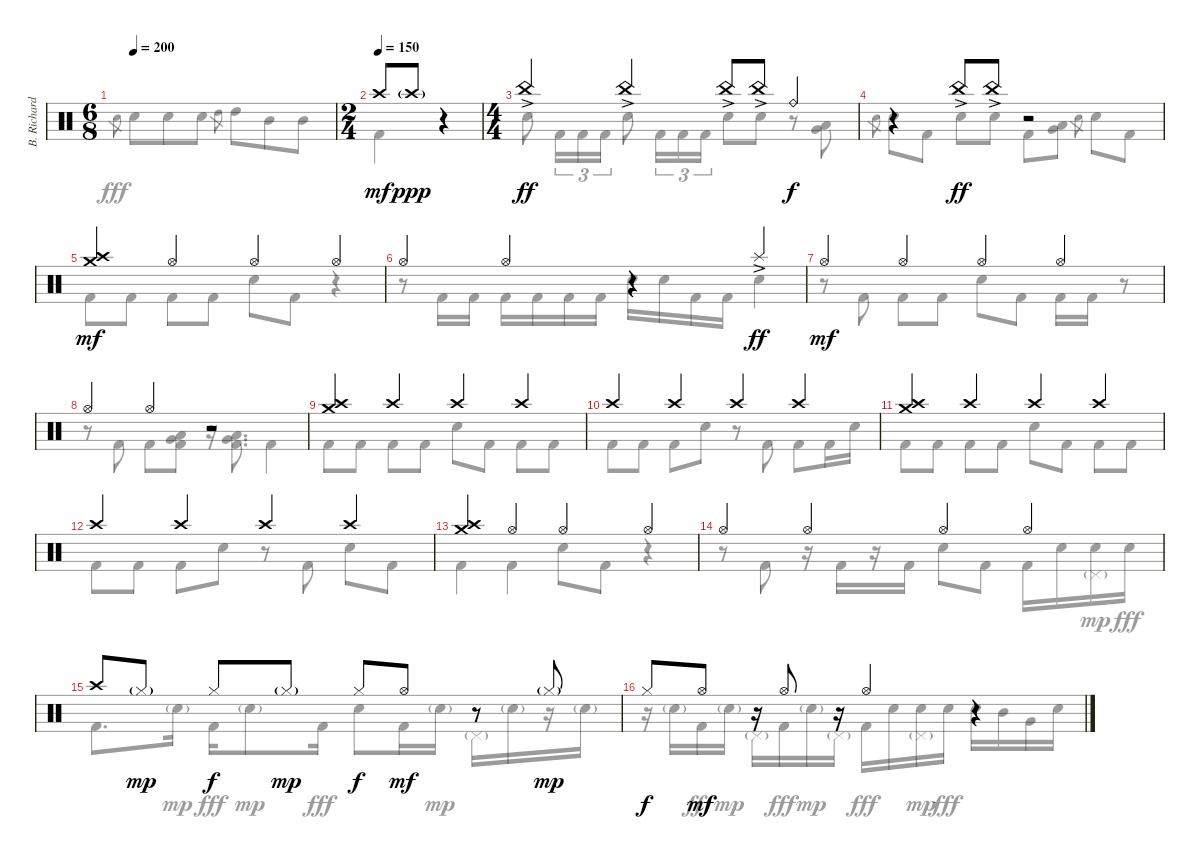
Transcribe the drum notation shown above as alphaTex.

\track ("B. Richardson Drums" "B. Richard") {instrument percussion}
\staff {score}
\articulation defaults
\voice
\ts (6 8)
\tempo 200
\clef neutral
\ks c
|
\ts (2 4)
\tempo (150)
"Crash high (hit)".8{dy mf} "Crash high (hit)"{g}.8{dy ppp} r.4 |
\ts (4 4)
"China (hit)"{ac}.4{dy ff} "China (hit)"{ac}.4 "China (hit)"{ac}.8 "China (hit)"{ac}.8 "Ride (bell)".4{dy f} |
r.4 "China (hit)"{ac}.8{dy ff} "China (hit)"{ac}.8 r.2 |
("Crash high (hit)" "Crash medium (hit)").4{dy mf} "Hi-Hat (open)".4 "Hi-Hat (open)".4 "Hi-Hat (open)".4 |
"Hi-Hat (open)".4 "Hi-Hat (open)".4 r.4 "Splash (hit)"{ac}.4{dy ff} |
"Hi-Hat (open)".4{dy mf} "Hi-Hat (open)".4 "Hi-Hat (open)".4 "Hi-Hat (open)".4 |
"Hi-Hat (open)".4 "Hi-Hat (open)".4 r.2 |
("Crash high (hit)" "Crash medium (hit)").4 "Crash high (hit)".4 "Crash high (hit)".4 "Crash high (hit)".4 |
"Crash high (hit)".4 "Crash high (hit)".4 "Crash high (hit)".4 "Crash high (hit)".4 |
("Crash high (hit)" "Crash medium (hit)").4 "Crash high (hit)".4 "Crash high (hit)".4 "Crash high (hit)".4 |
"Crash high (hit)".4 "Crash high (hit)".4 "Crash high (hit)".4 "Crash high (hit)".4 |
("Crash high (hit)" "Crash medium (hit)").4 "Hi-Hat (open)".4 "Hi-Hat (open)".4 "Hi-Hat (open)".4 |
"Hi-Hat (open)".4 "Hi-Hat (open)".4 "Hi-Hat (open)".4 "Hi-Hat (open)".4 |
"Crash high (hit)".8 "Hi-Hat (closed)"{g}.8{dy mp} "Hi-Hat (closed)".8{dy f} "Hi-Hat (closed)"{g}.8{dy mp} "Hi-Hat (closed)".8{dy f} "Hi-Hat (open)".8{dy mf} r.8 "Hi-Hat (closed)"{g}.8{dy mp} |
"Hi-Hat (closed)".8{dy f} "Hi-Hat (open)".8{dy mf} r.16 "Hi-Hat (open)".8 r.16 "Hi-Hat (open)".4 r.4
\voice
\clef neutral
\ottava regular
\simile none
\ks c "Electric Snare (hit)".8{gr dy fff} "Electric Snare (hit)".8 "Electric Snare (hit)".8 "Electric Snare (hit)".8 "High Tom (hit)".8{gr} "High Tom (hit)".8 "Mid Tom (hit)".8 "Mid Tom (hit)".8
|
"Kick (hit) 2".4 r.4 |
"Electric Snare (hit)".8 "Kick (hit) 2".16{tu (3 2)} "Kick (hit) 2".16{tu (3 2)} "Kick (hit) 2".16{tu (3 2)} "Electric Snare (hit)".8 "Kick (hit) 2".16{tu (3 2)} "Kick (hit) 2".16{tu (3 2)} "Kick (hit) 2".16{tu (3 2)} "Electric Snare (hit)".8 "Electric Snare (hit)".8 r.8 ("Low Tom (hit)" "Very Low Tom (hit)").8 |
"Electric Snare (hit)".8{gr} "Electric Snare (hit)".8 "Kick (hit) 2".8 "Electric Snare (hit)".8 "Electric Snare (hit)".8 "Kick (hit) 2".8 ("Low Tom (hit)" "Very Low Tom (hit)").8 "Electric Snare (hit)".8{gr} "Electric Snare (hit)".8 "Kick (hit) 2".8 |
"Kick (hit) 2".8 "Kick (hit) 2".8 "Kick (hit) 2".8 "Kick (hit) 2".8 "Electric Snare (hit)".8 "Kick (hit) 2".8 r.4 |
r.8 "Kick (hit) 2".16 "Kick (hit) 2".16 "Kick (hit) 2".16 "Kick (hit) 2".16 "Kick (hit) 2".16 "Kick (hit) 2".16 "Electric Snare (hit)".16 "Electric Snare (hit)".16 "Kick (hit) 2".16 "Kick (hit) 2".16 "Electric Snare (hit)".4 |
r.8 "Kick (hit) 2".8 "Kick (hit) 2".8 "Kick (hit) 2".8 "Electric Snare (hit)".8 "Kick (hit) 2".8 "Kick (hit) 2".16 "Kick (hit) 2".16 r.8 |
r.8 "Kick (hit) 2".8 "Kick (hit) 2".8 ("Low Tom (hit)" "Very Low Tom (hit)" "Kick (hit) 2").8 r.16 ("Low Tom (hit)" "Very Low Tom (hit)" "Kick (hit) 2").8{d} "Kick (hit) 2".4 |
"Kick (hit) 2".8 "Kick (hit) 2".8 "Kick (hit) 2".8 "Kick (hit) 2".8 "Electric Snare (hit)".8 "Kick (hit) 2".8 "Kick (hit) 2".8 "Kick (hit) 2".8 |
"Kick (hit) 2".8 "Kick (hit) 2".8 "Kick (hit) 2".8 "Electric Snare (hit)".8 r.8 "Kick (hit) 2".8 "Kick (hit) 2".8 "Kick (hit) 2".16 "Electric Snare (hit)".16 |
"Kick (hit) 2".8 "Kick (hit) 2".8 "Kick (hit) 2".8 "Kick (hit) 2".8 "Electric Snare (hit)".8 "Kick (hit) 2".8 "Kick (hit) 2".8 "Kick (hit) 2".8 |
"Kick (hit) 2".8 "Kick (hit) 2".8 "Kick (hit) 2".8 "Electric Snare (hit)".8 r.8 "Kick (hit) 2".8 "Electric Snare (hit)".8 "Kick (hit) 2".8 |
"Kick (hit) 2".4 "Kick (hit) 2".4 "Electric Snare (hit)".8 "Kick (hit) 2".8 r.4 |
r.8 "Kick (hit) 2".8 r.16 "Kick (hit) 2".16 r.16 "Kick (hit) 2".16 "Electric Snare (hit)".8 "Kick (hit) 2".8 "Kick (hit) 2".16 "Electric Snare (hit)".16 ("Electric Snare (hit)" "Pedal Hi-Hat (hit)"{g}).16{dy mp} "Electric Snare (hit)".16{dy fff} |
"Kick (hit) 2".8{d} "Electric Snare (hit)"{g}.16{dy mp} "Kick (hit) 2".16{dy fff} "Electric Snare (hit)"{g}.8{dy mp} "Kick (hit) 2".16{dy fff} "Electric Snare (hit)".8 "Kick (hit) 2".16 "Electric Snare (hit)"{g}.16{dy mp} "Pedal Hi-Hat (hit)"{g}.16 "Electric Snare (hit)"{g}.16 r.16 "Electric Snare (hit)"{g}.16 |
r.16 "Electric Snare (hit)"{g}.16 "Kick (hit) 2".16{dy fff} "Electric Snare (hit)"{g}.16{dy mp} "Pedal Hi-Hat (hit)"{g}.16 "Kick (hit) 2".16{dy fff} "Electric Snare (hit)"{g}.16{dy mp} "Pedal Hi-Hat (hit)"{g}.16 "Kick (hit) 2".16{dy fff} "Electric Snare (hit)".16 ("Electric Snare (hit)" "Pedal Hi-Hat (hit)"{g}).16{dy mp} "Electric Snare (hit)".16{dy fff} "Electric Snare (hit)".16 "Mid Tom (hit)".16 "Very Low Tom (hit)".16 "Electric Snare (hit)".16
